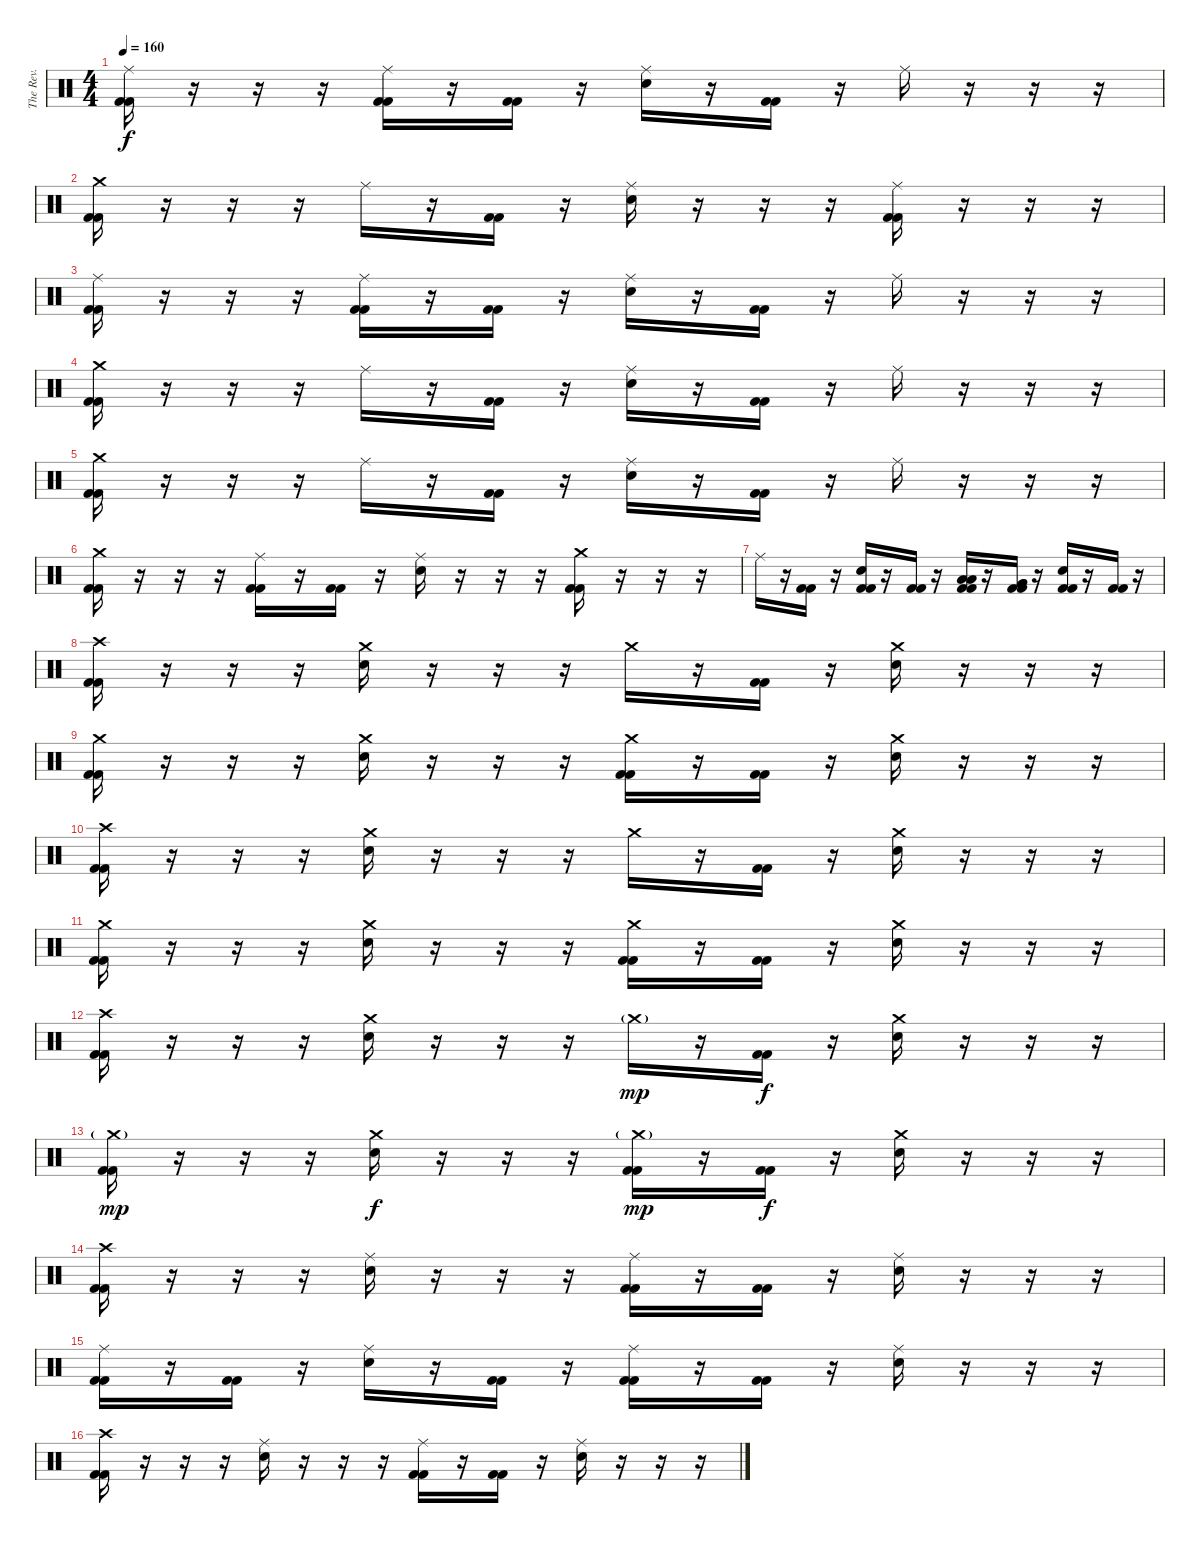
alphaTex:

\track ("The Rev." "The Rev.") {instrument percussion}
\staff {score}
\articulation defaults
\ts (4 4)
\tempo 160
\clef neutral
\ks c
("Ride (middle)" "Kick (hit) 2" "Kick (hit) 2").16{dy f} r.16 r.16 r.16 ("Ride (middle)" "Kick (hit) 2" "Kick (hit) 2").16 r.16 ("Kick (hit) 2" "Kick (hit) 2").16 r.16 ("Ride (middle)" "Electric Snare (hit)").16 r.16 ("Kick (hit) 2" "Kick (hit) 2").16 r.16 "Ride (middle)".16 r.16 r.16 r.16 |
("Crash medium (hit)" "Kick (hit) 2" "Kick (hit) 2").16 r.16 r.16 r.16 "Ride (middle)".16 r.16 ("Kick (hit) 2" "Kick (hit) 2").16 r.16 ("Ride (middle)" "Electric Snare (hit)").16 r.16 r.16 r.16 ("Ride (middle)" "Kick (hit) 2" "Kick (hit) 2").16 r.16 r.16 r.16 |
("Ride (middle)" "Kick (hit) 2" "Kick (hit) 2").16 r.16 r.16 r.16 ("Ride (middle)" "Kick (hit) 2" "Kick (hit) 2").16 r.16 ("Kick (hit) 2" "Kick (hit) 2").16 r.16 ("Ride (middle)" "Electric Snare (hit)").16 r.16 ("Kick (hit) 2" "Kick (hit) 2").16 r.16 "Ride (middle)".16 r.16 r.16 r.16 |
("Crash medium (hit)" "Kick (hit) 2" "Kick (hit) 2").16 r.16 r.16 r.16 "Ride (middle)".16 r.16 ("Kick (hit) 2" "Kick (hit) 2").16 r.16 ("Ride (middle)" "Electric Snare (hit)").16 r.16 ("Kick (hit) 2" "Kick (hit) 2").16 r.16 "Ride (middle)".16 r.16 r.16 r.16 |
("Crash medium (hit)" "Kick (hit) 2" "Kick (hit) 2").16 r.16 r.16 r.16 "Ride (middle)".16 r.16 ("Kick (hit) 2" "Kick (hit) 2").16 r.16 ("Ride (middle)" "Electric Snare (hit)").16 r.16 ("Kick (hit) 2" "Kick (hit) 2").16 r.16 "Ride (middle)".16 r.16 r.16 r.16 |
("Crash medium (hit)" "Kick (hit) 2" "Kick (hit) 2").16 r.16 r.16 r.16 ("Ride (middle)" "Kick (hit) 2" "Kick (hit) 2").16 r.16 ("Kick (hit) 2" "Kick (hit) 2").16 r.16 ("Ride (middle)" "Electric Snare (hit)").16 r.16 r.16 r.16 ("Crash medium (hit)" "Kick (hit) 2" "Kick (hit) 2").16 r.16 r.16 r.16 |
"Ride (middle)".16 r.16 ("Kick (hit) 2" "Kick (hit) 2").16 r.16 ("Electric Snare (hit)" "Kick (hit) 2" "Kick (hit) 2").16 r.16 ("Kick (hit) 2" "Kick (hit) 2").16 r.16 ("Low Tom (hit)" "Low Tom (hit)" "Kick (hit) 2" "Kick (hit) 2").16 r.16 ("Very Low Tom (hit)" "Very Low Tom (hit)" "Kick (hit) 2" "Kick (hit) 2").16 r.16 ("Electric Snare (hit)" "Kick (hit) 2" "Kick (hit) 2").16 r.16 ("Kick (hit) 2" "Kick (hit) 2").16 r.16 |
("Crash high (hit)" "Kick (hit) 2" "Kick (hit) 2").16 r.16 r.16 r.16 ("Crash medium (hit)" "Electric Snare (hit)").16 r.16 r.16 r.16 "Crash medium (hit)".16 r.16 ("Kick (hit) 2" "Kick (hit) 2").16 r.16 ("Crash medium (hit)" "Electric Snare (hit)").16 r.16 r.16 r.16 |
("Crash medium (hit)" "Kick (hit) 2" "Kick (hit) 2").16 r.16 r.16 r.16 ("Crash medium (hit)" "Electric Snare (hit)").16 r.16 r.16 r.16 ("Crash medium (hit)" "Kick (hit) 2" "Kick (hit) 2").16 r.16 ("Kick (hit) 2" "Kick (hit) 2").16 r.16 ("Crash medium (hit)" "Electric Snare (hit)").16 r.16 r.16 r.16 |
("Crash high (hit)" "Kick (hit) 2" "Kick (hit) 2").16 r.16 r.16 r.16 ("Crash medium (hit)" "Electric Snare (hit)").16 r.16 r.16 r.16 "Crash medium (hit)".16 r.16 ("Kick (hit) 2" "Kick (hit) 2").16 r.16 ("Crash medium (hit)" "Electric Snare (hit)").16 r.16 r.16 r.16 |
("Crash medium (hit)" "Kick (hit) 2" "Kick (hit) 2").16 r.16 r.16 r.16 ("Crash medium (hit)" "Electric Snare (hit)").16 r.16 r.16 r.16 ("Crash medium (hit)" "Kick (hit) 2" "Kick (hit) 2").16 r.16 ("Kick (hit) 2" "Kick (hit) 2").16 r.16 ("Crash medium (hit)" "Electric Snare (hit)").16 r.16 r.16 r.16 |
("Crash high (hit)" "Kick (hit) 2" "Kick (hit) 2").16 r.16 r.16 r.16 ("Crash medium (hit)" "Electric Snare (hit)").16 r.16 r.16 r.16 "Crash medium (hit)"{g}.16{dy mp} r.16 ("Kick (hit) 2" "Kick (hit) 2").16{dy f} r.16 ("Crash medium (hit)" "Electric Snare (hit)").16 r.16 r.16 r.16 |
("Crash medium (hit)"{g} "Kick (hit) 2" "Kick (hit) 2").16{dy mp} r.16 r.16 r.16 ("Crash medium (hit)" "Electric Snare (hit)").16{dy f} r.16 r.16 r.16 ("Crash medium (hit)"{g} "Kick (hit) 2" "Kick (hit) 2").16{dy mp} r.16 ("Kick (hit) 2" "Kick (hit) 2").16{dy f} r.16 ("Crash medium (hit)" "Electric Snare (hit)").16 r.16 r.16 r.16 |
("Crash high (hit)" "Kick (hit) 2" "Kick (hit) 2").16{volume 12} r.16 r.16 r.16 ("Ride (middle)" "Electric Snare (hit)").16 r.16 r.16 r.16 ("Ride (middle)" "Kick (hit) 2" "Kick (hit) 2").16 r.16 ("Kick (hit) 2" "Kick (hit) 2").16 r.16 ("Ride (middle)" "Electric Snare (hit)").16 r.16 r.16 r.16 |
("Ride (middle)" "Kick (hit) 2" "Kick (hit) 2").16 r.16 ("Kick (hit) 2" "Kick (hit) 2").16 r.16 ("Ride (middle)" "Electric Snare (hit)").16 r.16 ("Kick (hit) 2" "Kick (hit) 2").16 r.16 ("Ride (middle)" "Kick (hit) 2" "Kick (hit) 2").16 r.16 ("Kick (hit) 2" "Kick (hit) 2").16 r.16 ("Ride (middle)" "Electric Snare (hit)").16 r.16 r.16 r.16 |
("Crash high (hit)" "Kick (hit) 2" "Kick (hit) 2").16 r.16 r.16 r.16 ("Ride (middle)" "Electric Snare (hit)").16 r.16 r.16 r.16 ("Ride (middle)" "Kick (hit) 2" "Kick (hit) 2").16 r.16 ("Kick (hit) 2" "Kick (hit) 2").16 r.16 ("Ride (middle)" "Electric Snare (hit)").16 r.16 r.16 r.16
